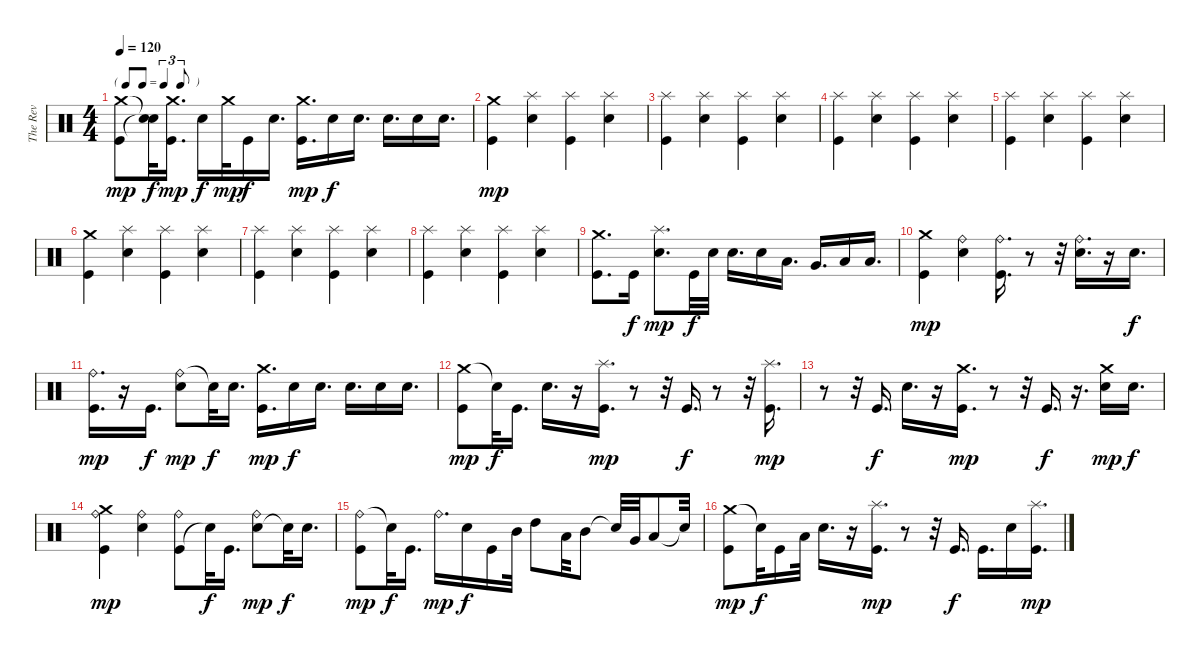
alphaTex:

\track ("The Rev" "The Rev") {instrument percussion}
\staff {score}
\articulation defaults
\ts (4 4)
\tf triplet8th
\tempo 120
\clef neutral
\ks c
("Crash medium (hit)" "Kick (hit)").8{dy mp} ("Snare (hit)"{t} "Snare (hit)"{t}).32{dy f} ("Crash medium (hit)" "Kick (hit)").16{d dy mp} "Electric Snare (hit)".16{dy f} "Crash medium (hit)".32{dy mp} "Kick (hit)".16{dy f} "Electric Snare (hit)".16{d} ("Kick (hit)" "Crash medium (hit)").16{d dy mp} "Electric Snare (hit)".16{dy f} "Electric Snare (hit)".16{d} "Electric Snare (hit)".16{d} "Electric Snare (hit)".16 "Electric Snare (hit)".16{d} |
("Kick (hit)" "Crash medium (hit)").4{dy mp} ("Splash (hit)" "Electric Snare (hit)").4 ("Splash (hit)" "Kick (hit)").4 ("Splash (hit)" "Electric Snare (hit)").4 |
("Kick (hit)" "Splash (hit)").4 ("Splash (hit)" "Electric Snare (hit)").4 ("Splash (hit)" "Kick (hit)").4 ("Splash (hit)" "Electric Snare (hit)").4 |
("Kick (hit)" "Splash (hit)").4 ("Electric Snare (hit)" "Splash (hit)").4 ("Kick (hit)" "Splash (hit)").4 ("Electric Snare (hit)" "Splash (hit)").4 |
("Kick (hit)" "Splash (hit)").4 ("Electric Snare (hit)" "Splash (hit)").4 ("Kick (hit)" "Splash (hit)").4 ("Electric Snare (hit)" "Splash (hit)").4 |
("Kick (hit)" "Crash medium (hit)").4 ("Splash (hit)" "Electric Snare (hit)").4 ("Splash (hit)" "Kick (hit)").4 ("Splash (hit)" "Electric Snare (hit)").4 |
("Kick (hit)" "Splash (hit)").4 ("Splash (hit)" "Electric Snare (hit)").4 ("Splash (hit)" "Kick (hit)").4 ("Splash (hit)" "Electric Snare (hit)").4 |
("Kick (hit)" "Splash (hit)").4 ("Electric Snare (hit)" "Splash (hit)").4 ("Kick (hit)" "Splash (hit)").4 ("Electric Snare (hit)" "Splash (hit)").4 |
("Kick (hit)" "Crash medium (hit)").8{d} "Kick (hit)".16{dy f} ("Electric Snare (hit)" "Splash (hit)").8{d dy mp} "Kick (hit)".32{dy f} "Snare (hit) 2".32 "Electric Snare (hit)".16{d} "Electric Snare (hit)".16 "Low Tom (hit)".16{d} "Very Low Tom (hit)".16{d} "Low Floor Tom (hit)".16 "Low Floor Tom (hit)".16{d} |
("Kick (hit)" "Crash medium (hit)").4{dy mp} ("Electric Snare (hit)" "Ride (bell)").4 ("Ride (bell)" "Kick (hit)").16{d} r.8 r.32 ("Ride (bell)" "Electric Snare (hit)").16{d} r.16 "Electric Snare (hit)".16{d dy f} |
("Ride (bell)" "Kick (hit)").16{d dy mp} r.16 "Kick (hit)".16{d dy f} ("Ride (bell)" "Electric Snare (hit)").8{dy mp} "Snare (hit)"{t}.32{dy f} "Electric Snare (hit)".16{d} ("Kick (hit)" "Crash medium (hit)").16{d dy mp} "Electric Snare (hit)".16{dy f} "Electric Snare (hit)".16{d} "Electric Snare (hit)".16{d} "Electric Snare (hit)".16 "Electric Snare (hit)".16{d} |
("Crash medium (hit)" "Kick (hit)").8{dy mp} "Snare (hit)"{t}.32{dy f} "Kick (hit)".16{d} "Electric Snare (hit)".16{d} r.16 ("Splash (hit)" "Kick (hit)").16{d dy mp} r.8 r.32 "Kick (hit)".16{d dy f} r.8 r.32 ("Splash (hit)" "Kick (hit)").16{d dy mp} |
r.8 r.32 "Kick (hit)".16{d dy f} "Electric Snare (hit)".16{d} r.16 ("Crash medium (hit)" "Kick (hit)").16{d dy mp} r.8 r.32 "Kick (hit)".16{d dy f} r.16{d} ("Electric Snare (hit)" "Crash medium (hit)").16{dy mp} "Electric Snare (hit)".16{d dy f} |
("Crash medium (hit)" "Kick (hit)" "Ride (bell)").4{dy mp} ("Electric Snare (hit)" "Ride (bell)").4 ("Kick (hit)" "Ride (bell)").8 "Snare (hit)"{t}.32{dy f} "Kick (hit)".16{d} ("Electric Snare (hit)" "Ride (bell)").8{dy mp} "Snare (hit)"{t}.32{dy f} "Electric Snare (hit)".16{d} |
("Ride (bell)" "Kick (hit)").8{dy mp} "Snare (hit)"{t}.32{dy f} "Kick (hit)".16{d} "Ride (bell)".16{d dy mp} "Electric Snare (hit)".16{dy f} "Kick (hit)".16 "Mid Tom (hit)".32 "High Tom (hit)".8 "Low Tom (hit)".32 "Mid Tom (hit)".8 "Snare (hit)"{t}.32 "Very Low Tom (hit)".32 "Low Tom (hit)".8 "Snare (hit)"{t}.32 |
("Crash medium (hit)" "Kick (hit)").8{dy mp} "Snare (hit)"{t}.32{dy f} "Kick (hit)".16 "Low Floor Tom (hit)".32 "Electric Snare (hit)".16{d} r.16 ("Splash (hit)" "Kick (hit)").16{d dy mp} r.8 r.32 "Kick (hit)".16{d dy f} "Kick (hit)".16{d} "Electric Snare (hit)".16 ("Splash (hit)" "Kick (hit)").16{d dy mp}
